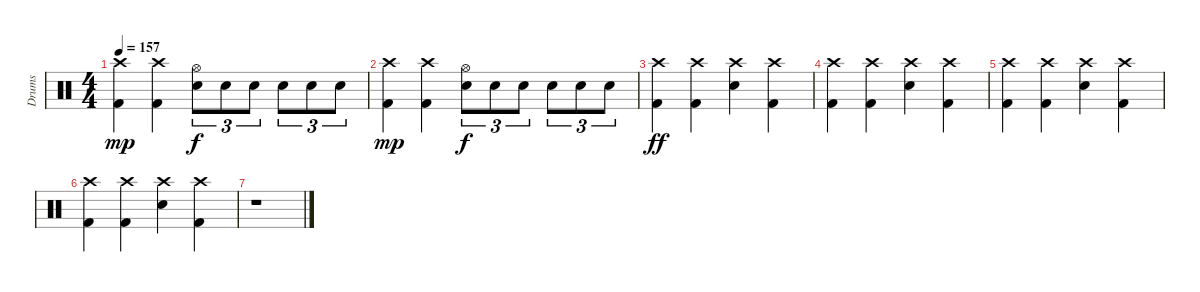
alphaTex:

\track ("Drums" "Drums") {instrument percussion}
\staff {score}
\articulation defaults
\ts (4 4)
\tempo 157
\clef neutral
\ks c
("Crash high (hit)" "Kick (hit) 2").4{dy mp} ("Crash high (hit)" "Kick (hit) 2").4 ("Hi-Hat (open)" "Snare (hit) 2").8{tu (3 2) dy f} "Snare (hit) 2".8{tu (3 2)} "Snare (hit) 2".8{tu (3 2)} "Snare (hit) 2".8{tu (3 2)} "Snare (hit) 2".8{tu (3 2)} "Snare (hit) 2".8{tu (3 2)} |
("Crash high (hit)" "Kick (hit) 2").4{dy mp} ("Crash high (hit)" "Kick (hit) 2").4 ("Hi-Hat (open)" "Snare (hit) 2").8{tu (3 2) dy f} "Snare (hit) 2".8{tu (3 2)} "Snare (hit) 2".8{tu (3 2)} "Snare (hit) 2".8{tu (3 2)} "Snare (hit) 2".8{tu (3 2)} "Snare (hit) 2".8{tu (3 2)} |
("Crash high (hit)" "Kick (hit) 2").4{dy ff} ("Crash high (hit)" "Kick (hit) 2").4 ("Crash high (hit)" "Snare (hit) 2").4 ("Crash high (hit)" "Kick (hit) 2").4 |
("Crash high (hit)" "Kick (hit) 2").4 ("Crash high (hit)" "Kick (hit) 2").4 ("Crash high (hit)" "Snare (hit) 2").4 ("Crash high (hit)" "Kick (hit) 2").4 |
("Crash high (hit)" "Kick (hit) 2").4 ("Crash high (hit)" "Kick (hit) 2").4 ("Crash high (hit)" "Snare (hit) 2").4 ("Crash high (hit)" "Kick (hit) 2").4 |
("Crash high (hit)" "Kick (hit) 2").4 ("Crash high (hit)" "Kick (hit) 2").4 ("Crash high (hit)" "Snare (hit) 2").4 ("Crash high (hit)" "Kick (hit) 2").4 |
r.1{volume 0}
